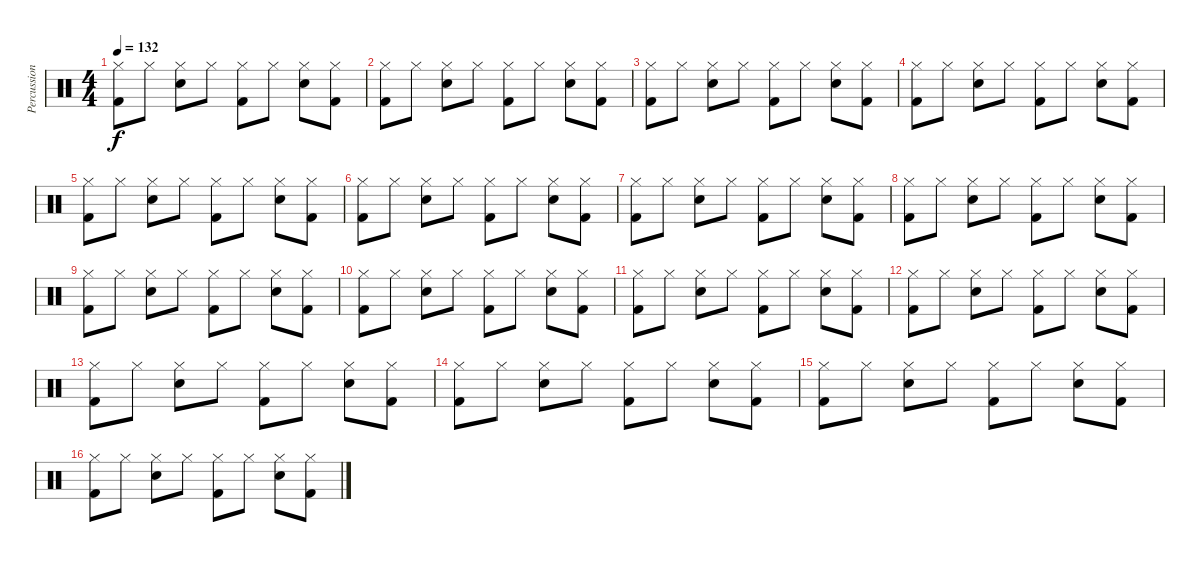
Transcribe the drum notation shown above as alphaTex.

\track ("Percussion" "Percussion") {instrument percussion}
\staff {score}
\articulation defaults
\ts (4 4)
\tempo 132
\clef neutral
\ks c
("Kick (hit) 2" "Hi-Hat (closed)").8{dy f} "Hi-Hat (closed)".8 ("Electric Snare (hit)" "Hi-Hat (closed)").8 "Hi-Hat (closed)".8 ("Kick (hit) 2" "Hi-Hat (closed)").8 "Hi-Hat (closed)".8 ("Electric Snare (hit)" "Hi-Hat (closed)").8 ("Kick (hit) 2" "Hi-Hat (closed)").8 |
("Kick (hit) 2" "Hi-Hat (closed)").8 "Hi-Hat (closed)".8 ("Electric Snare (hit)" "Hi-Hat (closed)").8 "Hi-Hat (closed)".8 ("Kick (hit) 2" "Hi-Hat (closed)").8 "Hi-Hat (closed)".8 ("Electric Snare (hit)" "Hi-Hat (closed)").8 ("Kick (hit) 2" "Hi-Hat (closed)").8 |
("Kick (hit) 2" "Hi-Hat (closed)").8 "Hi-Hat (closed)".8 ("Electric Snare (hit)" "Hi-Hat (closed)").8 "Hi-Hat (closed)".8 ("Kick (hit) 2" "Hi-Hat (closed)").8 "Hi-Hat (closed)".8 ("Electric Snare (hit)" "Hi-Hat (closed)").8 ("Kick (hit) 2" "Hi-Hat (closed)").8 |
("Kick (hit) 2" "Hi-Hat (closed)").8 "Hi-Hat (closed)".8 ("Electric Snare (hit)" "Hi-Hat (closed)").8 "Hi-Hat (closed)".8 ("Kick (hit) 2" "Hi-Hat (closed)").8 "Hi-Hat (closed)".8 ("Electric Snare (hit)" "Hi-Hat (closed)").8 ("Kick (hit) 2" "Hi-Hat (closed)").8 |
("Kick (hit) 2" "Hi-Hat (closed)").8 "Hi-Hat (closed)".8 ("Electric Snare (hit)" "Hi-Hat (closed)").8 "Hi-Hat (closed)".8 ("Kick (hit) 2" "Hi-Hat (closed)").8 "Hi-Hat (closed)".8 ("Electric Snare (hit)" "Hi-Hat (closed)").8 ("Kick (hit) 2" "Hi-Hat (closed)").8 |
("Kick (hit) 2" "Hi-Hat (closed)").8 "Hi-Hat (closed)".8 ("Electric Snare (hit)" "Hi-Hat (closed)").8 "Hi-Hat (closed)".8 ("Kick (hit) 2" "Hi-Hat (closed)").8 "Hi-Hat (closed)".8 ("Electric Snare (hit)" "Hi-Hat (closed)").8 ("Kick (hit) 2" "Hi-Hat (closed)").8 |
("Kick (hit) 2" "Hi-Hat (closed)").8 "Hi-Hat (closed)".8 ("Electric Snare (hit)" "Hi-Hat (closed)").8 "Hi-Hat (closed)".8 ("Kick (hit) 2" "Hi-Hat (closed)").8 "Hi-Hat (closed)".8 ("Electric Snare (hit)" "Hi-Hat (closed)").8 ("Kick (hit) 2" "Hi-Hat (closed)").8 |
("Kick (hit) 2" "Hi-Hat (closed)").8 "Hi-Hat (closed)".8 ("Electric Snare (hit)" "Hi-Hat (closed)").8 "Hi-Hat (closed)".8 ("Kick (hit) 2" "Hi-Hat (closed)").8 "Hi-Hat (closed)".8 ("Electric Snare (hit)" "Hi-Hat (closed)").8 ("Kick (hit) 2" "Hi-Hat (closed)").8 |
("Kick (hit) 2" "Hi-Hat (closed)").8 "Hi-Hat (closed)".8 ("Electric Snare (hit)" "Hi-Hat (closed)").8 "Hi-Hat (closed)".8 ("Kick (hit) 2" "Hi-Hat (closed)").8 "Hi-Hat (closed)".8 ("Electric Snare (hit)" "Hi-Hat (closed)").8 ("Kick (hit) 2" "Hi-Hat (closed)").8 |
("Kick (hit) 2" "Hi-Hat (closed)").8 "Hi-Hat (closed)".8 ("Electric Snare (hit)" "Hi-Hat (closed)").8 "Hi-Hat (closed)".8 ("Kick (hit) 2" "Hi-Hat (closed)").8 "Hi-Hat (closed)".8 ("Electric Snare (hit)" "Hi-Hat (closed)").8 ("Kick (hit) 2" "Hi-Hat (closed)").8 |
("Kick (hit) 2" "Hi-Hat (closed)").8 "Hi-Hat (closed)".8 ("Electric Snare (hit)" "Hi-Hat (closed)").8 "Hi-Hat (closed)".8 ("Kick (hit) 2" "Hi-Hat (closed)").8 "Hi-Hat (closed)".8 ("Electric Snare (hit)" "Hi-Hat (closed)").8 ("Kick (hit) 2" "Hi-Hat (closed)").8 |
("Kick (hit) 2" "Hi-Hat (closed)").8 "Hi-Hat (closed)".8 ("Electric Snare (hit)" "Hi-Hat (closed)").8 "Hi-Hat (closed)".8 ("Kick (hit) 2" "Hi-Hat (closed)").8 "Hi-Hat (closed)".8 ("Electric Snare (hit)" "Hi-Hat (closed)").8 ("Kick (hit) 2" "Hi-Hat (closed)").8 |
("Kick (hit) 2" "Hi-Hat (closed)").8 "Hi-Hat (closed)".8 ("Electric Snare (hit)" "Hi-Hat (closed)").8 "Hi-Hat (closed)".8 ("Kick (hit) 2" "Hi-Hat (closed)").8 "Hi-Hat (closed)".8 ("Electric Snare (hit)" "Hi-Hat (closed)").8 ("Kick (hit) 2" "Hi-Hat (closed)").8 |
("Kick (hit) 2" "Hi-Hat (closed)").8 "Hi-Hat (closed)".8 ("Electric Snare (hit)" "Hi-Hat (closed)").8 "Hi-Hat (closed)".8 ("Kick (hit) 2" "Hi-Hat (closed)").8 "Hi-Hat (closed)".8 ("Electric Snare (hit)" "Hi-Hat (closed)").8 ("Kick (hit) 2" "Hi-Hat (closed)").8 |
("Kick (hit) 2" "Hi-Hat (closed)").8 "Hi-Hat (closed)".8 ("Electric Snare (hit)" "Hi-Hat (closed)").8 "Hi-Hat (closed)".8 ("Kick (hit) 2" "Hi-Hat (closed)").8 "Hi-Hat (closed)".8 ("Electric Snare (hit)" "Hi-Hat (closed)").8 ("Kick (hit) 2" "Hi-Hat (closed)").8 |
("Kick (hit) 2" "Hi-Hat (closed)").8 "Hi-Hat (closed)".8 ("Electric Snare (hit)" "Hi-Hat (closed)").8 "Hi-Hat (closed)".8 ("Kick (hit) 2" "Hi-Hat (closed)").8 "Hi-Hat (closed)".8 ("Electric Snare (hit)" "Hi-Hat (closed)").8 ("Kick (hit) 2" "Hi-Hat (closed)").8
